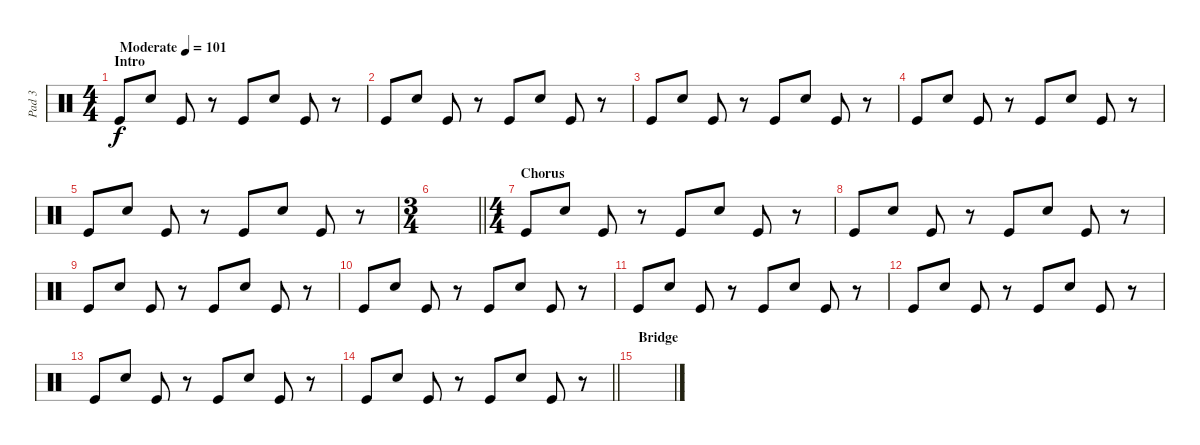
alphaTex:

\track ("Pad 3" "Pad 3") {instrument percussion}
\staff {score}
\articulation defaults
\ts (4 4)
\section ("" "Intro")
\tempo (101 "Moderate")
\clef neutral
\ks c "Kick (hit)".8{dy f} "Electric Snare (hit)".8 "Kick (hit)".8
r.8 "Kick (hit)".8 "Electric Snare (hit)".8 "Kick (hit)".8 r.8 |
"Kick (hit)".8 "Electric Snare (hit)".8 "Kick (hit)".8 r.8 "Kick (hit)".8 "Electric Snare (hit)".8 "Kick (hit)".8 r.8 |
"Kick (hit)".8 "Electric Snare (hit)".8 "Kick (hit)".8 r.8 "Kick (hit)".8 "Electric Snare (hit)".8 "Kick (hit)".8 r.8 |
"Kick (hit)".8 "Electric Snare (hit)".8 "Kick (hit)".8 r.8 "Kick (hit)".8 "Electric Snare (hit)".8 "Kick (hit)".8 r.8 |
"Kick (hit)".8 "Electric Snare (hit)".8 "Kick (hit)".8 r.8 "Kick (hit)".8 "Electric Snare (hit)".8 "Kick (hit)".8 r.8 |
\ts (3 4)
\barLineRight lightlight
|
\ts (4 4)
\section ("" "Chorus")
"Kick (hit)".8 "Electric Snare (hit)".8 "Kick (hit)".8 r.8 "Kick (hit)".8 "Electric Snare (hit)".8 "Kick (hit)".8 r.8 |
"Kick (hit)".8 "Electric Snare (hit)".8 "Kick (hit)".8 r.8 "Kick (hit)".8 "Electric Snare (hit)".8 "Kick (hit)".8 r.8 |
"Kick (hit)".8 "Electric Snare (hit)".8 "Kick (hit)".8 r.8 "Kick (hit)".8 "Electric Snare (hit)".8 "Kick (hit)".8 r.8 |
"Kick (hit)".8 "Electric Snare (hit)".8 "Kick (hit)".8 r.8 "Kick (hit)".8 "Electric Snare (hit)".8 "Kick (hit)".8 r.8 |
"Kick (hit)".8 "Electric Snare (hit)".8 "Kick (hit)".8 r.8 "Kick (hit)".8 "Electric Snare (hit)".8 "Kick (hit)".8 r.8 |
"Kick (hit)".8 "Electric Snare (hit)".8 "Kick (hit)".8 r.8 "Kick (hit)".8 "Electric Snare (hit)".8 "Kick (hit)".8 r.8 |
"Kick (hit)".8 "Electric Snare (hit)".8 "Kick (hit)".8 r.8 "Kick (hit)".8 "Electric Snare (hit)".8 "Kick (hit)".8 r.8 |
\barLineRight lightlight "Kick (hit)".8 "Electric Snare (hit)".8 "Kick (hit)".8
r.8 "Kick (hit)".8 "Electric Snare (hit)".8 "Kick (hit)".8 r.8 |
\section ("" "Bridge")
